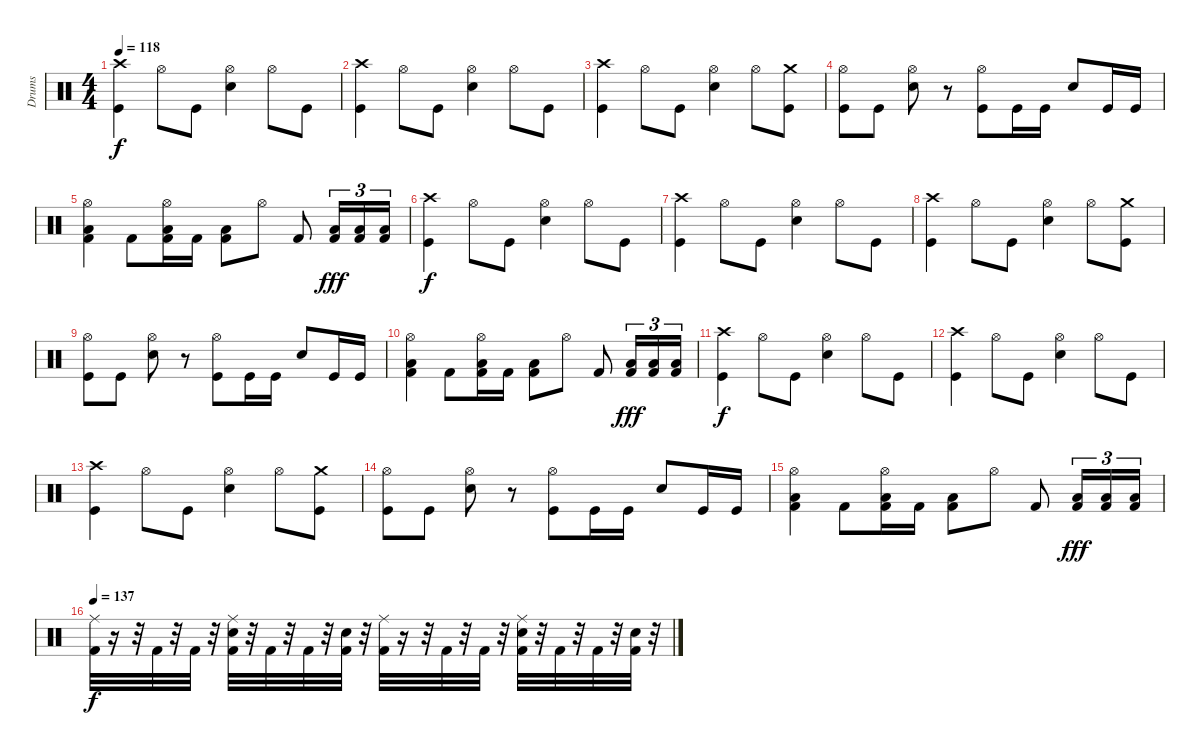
\track ("Drums" "Drums") {instrument percussion}
\staff {score}
\articulation defaults
\ts (4 4)
\tempo 118
\clef neutral
\ks c
("Crash high (hit)" "Kick (hit)").4{dy f} "Hi-Hat (open)".8 "Kick (hit)".8 ("Hi-Hat (open)" "Snare (hit) 2").4 "Hi-Hat (open)".8 "Kick (hit)".8 |
("Crash high (hit)" "Kick (hit)").4 "Hi-Hat (open)".8 "Kick (hit)".8 ("Hi-Hat (open)" "Snare (hit) 2").4 "Hi-Hat (open)".8 "Kick (hit)".8 |
("Crash high (hit)" "Kick (hit)").4 "Hi-Hat (open)".8 "Kick (hit)".8 ("Hi-Hat (open)" "Snare (hit) 2").4 "Hi-Hat (open)".8 ("Crash medium (hit)" "Kick (hit)").8 |
("Hi-Hat (open)" "Kick (hit)").8 "Kick (hit)".8 ("Hi-Hat (open)" "Snare (hit) 2").8 r.8 ("Hi-Hat (open)" "Kick (hit)").8 "Kick (hit)".16 "Kick (hit)".16 "Snare (hit) 2".8 "Kick (hit)".16 "Kick (hit)".16 |
("Hi-Hat (open)" "Kick (hit) 2" "Low Floor Tom (hit)").4 "Kick (hit) 2".8 ("Hi-Hat (open)" "Kick (hit) 2" "Low Floor Tom (hit)").16 "Kick (hit) 2".16 ("Kick (hit) 2" "Low Floor Tom (hit)").8 "Hi-Hat (open)".8 "Kick (hit) 2".8 ("Kick (hit) 2" "Low Floor Tom (hit)").16{tu (3 2) dy fff} ("Kick (hit) 2" "Low Floor Tom (hit)").16{tu (3 2)} ("Kick (hit) 2" "Low Floor Tom (hit)").16{tu (3 2)} |
("Crash high (hit)" "Kick (hit)").4{dy f} "Hi-Hat (open)".8 "Kick (hit)".8 ("Hi-Hat (open)" "Snare (hit) 2").4 "Hi-Hat (open)".8 "Kick (hit)".8 |
("Crash high (hit)" "Kick (hit)").4 "Hi-Hat (open)".8 "Kick (hit)".8 ("Hi-Hat (open)" "Snare (hit) 2").4 "Hi-Hat (open)".8 "Kick (hit)".8 |
("Crash high (hit)" "Kick (hit)").4 "Hi-Hat (open)".8 "Kick (hit)".8 ("Hi-Hat (open)" "Snare (hit) 2").4 "Hi-Hat (open)".8 ("Crash medium (hit)" "Kick (hit)").8 |
("Hi-Hat (open)" "Kick (hit)").8 "Kick (hit)".8 ("Hi-Hat (open)" "Snare (hit) 2").8 r.8 ("Hi-Hat (open)" "Kick (hit)").8 "Kick (hit)".16 "Kick (hit)".16 "Snare (hit) 2".8 "Kick (hit)".16 "Kick (hit)".16 |
("Hi-Hat (open)" "Kick (hit) 2" "Low Floor Tom (hit)").4 "Kick (hit) 2".8 ("Hi-Hat (open)" "Kick (hit) 2" "Low Floor Tom (hit)").16 "Kick (hit) 2".16 ("Kick (hit) 2" "Low Floor Tom (hit)").8 "Hi-Hat (open)".8 "Kick (hit) 2".8 ("Kick (hit) 2" "Low Floor Tom (hit)").16{tu (3 2) dy fff} ("Kick (hit) 2" "Low Floor Tom (hit)").16{tu (3 2)} ("Kick (hit) 2" "Low Floor Tom (hit)").16{tu (3 2)} |
("Crash high (hit)" "Kick (hit)").4{dy f} "Hi-Hat (open)".8 "Kick (hit)".8 ("Hi-Hat (open)" "Snare (hit) 2").4 "Hi-Hat (open)".8 "Kick (hit)".8 |
("Crash high (hit)" "Kick (hit)").4 "Hi-Hat (open)".8 "Kick (hit)".8 ("Hi-Hat (open)" "Snare (hit) 2").4 "Hi-Hat (open)".8 "Kick (hit)".8 |
("Crash high (hit)" "Kick (hit)").4 "Hi-Hat (open)".8 "Kick (hit)".8 ("Hi-Hat (open)" "Snare (hit) 2").4 "Hi-Hat (open)".8 ("Crash medium (hit)" "Kick (hit)").8 |
("Hi-Hat (open)" "Kick (hit)").8 "Kick (hit)".8 ("Hi-Hat (open)" "Snare (hit) 2").8 r.8 ("Hi-Hat (open)" "Kick (hit)").8 "Kick (hit)".16 "Kick (hit)".16 "Snare (hit) 2".8 "Kick (hit)".16 "Kick (hit)".16 |
("Hi-Hat (open)" "Kick (hit) 2" "Low Floor Tom (hit)").4 "Kick (hit) 2".8 ("Hi-Hat (open)" "Kick (hit) 2" "Low Floor Tom (hit)").16 "Kick (hit) 2".16 ("Kick (hit) 2" "Low Floor Tom (hit)").8 "Hi-Hat (open)".8 "Kick (hit) 2".8 ("Kick (hit) 2" "Low Floor Tom (hit)").16{tu (3 2) dy fff} ("Kick (hit) 2" "Low Floor Tom (hit)").16{tu (3 2)} ("Kick (hit) 2" "Low Floor Tom (hit)").16{tu (3 2)} |
\tempo 137
("Ride (middle)" "Kick (hit) 2").32{dy f} r.16 r.32 "Kick (hit) 2".32 r.32 "Kick (hit) 2".32 r.32 ("Ride (middle)" "Snare (hit) 2" "Kick (hit) 2").32 r.32 "Kick (hit) 2".32 r.32 "Kick (hit) 2".32 r.32 ("Electric Snare (hit)" "Kick (hit) 2").32 r.32 ("Ride (middle)" "Kick (hit) 2").32 r.16 r.32 "Kick (hit) 2".32 r.32 "Kick (hit) 2".32 r.32 ("Ride (middle)" "Snare (hit) 2" "Kick (hit) 2").32 r.32 "Kick (hit) 2".32 r.32 "Kick (hit) 2".32 r.32 ("Electric Snare (hit)" "Kick (hit) 2").32 r.32
